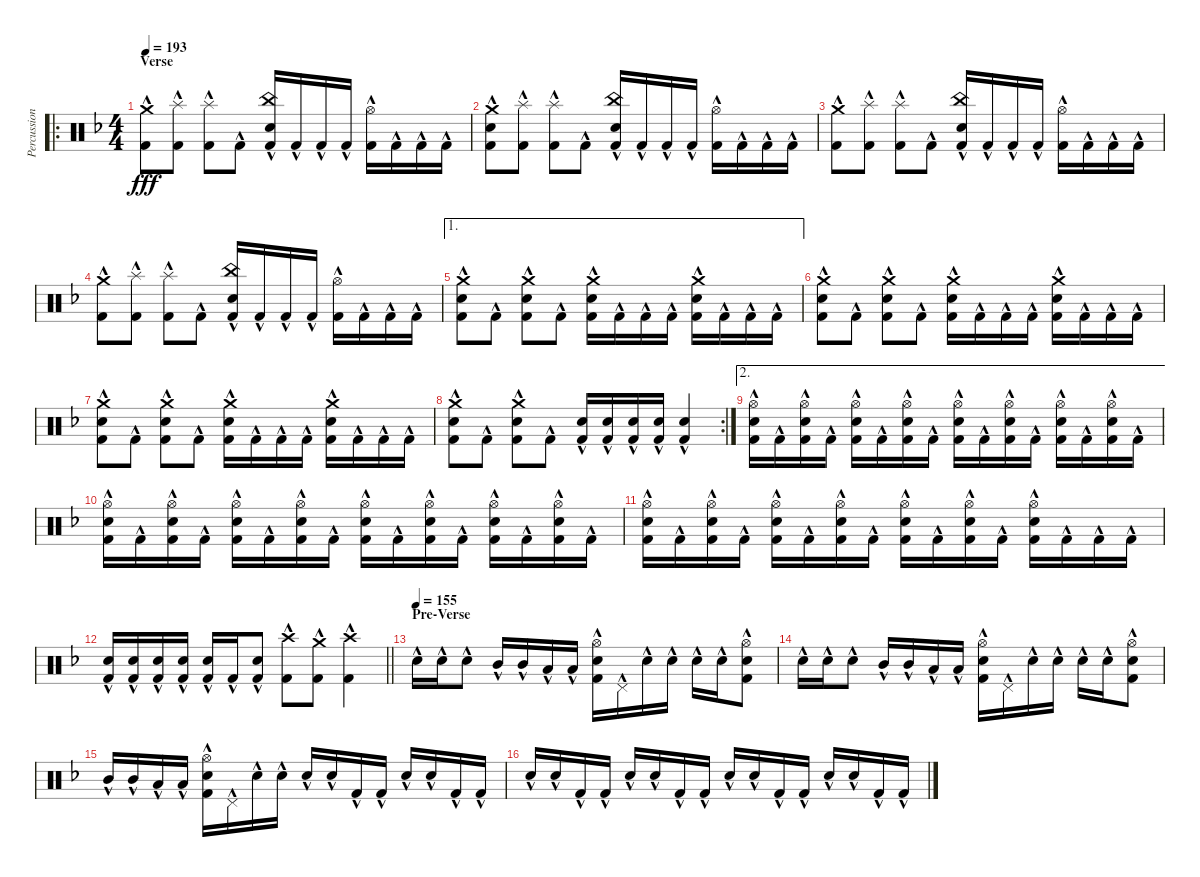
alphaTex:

\track ("Percussion" "Percussion") {instrument percussion}
\staff {score}
\articulation defaults
\ro
\ts (4 4)
\section ("" "Verse")
\tempo 193
\clef neutral
\ks f
("Crash medium (hit)"{hac} "Kick (hit) 2"{hac}).8{dy fff volume 14} ("Splash (hit)"{hac} "Kick (hit) 2"{hac}).8 ("Splash (hit)"{hac} "Kick (hit) 2"{hac}).8 "Kick (hit) 2"{hac}.8 ("China (hit)"{hac} "Electric Snare (hit)"{hac} "Kick (hit) 2"{hac}).16 "Kick (hit) 2"{hac}.16 "Kick (hit) 2"{hac}.16 "Kick (hit) 2"{hac}.16 ("Hi-Hat (open)"{hac} "Kick (hit) 2"{hac}).16 "Kick (hit) 2"{hac}.16 "Kick (hit) 2"{hac}.16 "Kick (hit) 2"{hac}.16 |
("Crash medium (hit)"{hac} "Electric Snare (hit)"{hac} "Kick (hit) 2"{hac}).8{volume 14} ("Splash (hit)"{hac} "Kick (hit) 2"{hac}).8 ("Splash (hit)"{hac} "Kick (hit) 2"{hac}).8 "Kick (hit) 2"{hac}.8 ("China (hit)"{hac} "Electric Snare (hit)"{hac} "Kick (hit) 2"{hac}).16 "Kick (hit) 2"{hac}.16 "Kick (hit) 2"{hac}.16 "Kick (hit) 2"{hac}.16 ("Hi-Hat (open)"{hac} "Kick (hit) 2"{hac}).16 "Kick (hit) 2"{hac}.16 "Kick (hit) 2"{hac}.16 "Kick (hit) 2"{hac}.16 |
("Crash medium (hit)"{hac} "Kick (hit) 2"{hac}).8{volume 14} ("Splash (hit)"{hac} "Kick (hit) 2"{hac}).8 ("Splash (hit)"{hac} "Kick (hit) 2"{hac}).8 "Kick (hit) 2"{hac}.8 ("China (hit)"{hac} "Electric Snare (hit)"{hac} "Kick (hit) 2"{hac}).16 "Kick (hit) 2"{hac}.16 "Kick (hit) 2"{hac}.16 "Kick (hit) 2"{hac}.16 ("Hi-Hat (open)"{hac} "Kick (hit) 2"{hac}).16 "Kick (hit) 2"{hac}.16 "Kick (hit) 2"{hac}.16 "Kick (hit) 2"{hac}.16 |
("Crash medium (hit)"{hac} "Kick (hit) 2"{hac}).8{volume 14} ("Splash (hit)"{hac} "Kick (hit) 2"{hac}).8 ("Splash (hit)"{hac} "Kick (hit) 2"{hac}).8 "Kick (hit) 2"{hac}.8 ("China (hit)"{hac} "Electric Snare (hit)"{hac} "Kick (hit) 2"{hac}).16 "Kick (hit) 2"{hac}.16 "Kick (hit) 2"{hac}.16 "Kick (hit) 2"{hac}.16 ("Hi-Hat (open)"{hac} "Kick (hit) 2"{hac}).16 "Kick (hit) 2"{hac}.16 "Kick (hit) 2"{hac}.16 "Kick (hit) 2"{hac}.16 |
\ae 1
("Crash medium (hit)"{hac} "Electric Snare (hit)"{hac} "Kick (hit) 2"{hac}).8 "Kick (hit) 2"{hac}.8 ("Crash medium (hit)"{hac} "Electric Snare (hit)"{hac} "Kick (hit) 2"{hac}).8 "Kick (hit) 2"{hac}.8 ("Crash medium (hit)"{hac} "Electric Snare (hit)"{hac} "Kick (hit) 2"{hac}).16 "Kick (hit) 2"{hac}.16 "Kick (hit) 2"{hac}.16 "Kick (hit) 2"{hac}.16 ("Crash medium (hit)"{hac} "Electric Snare (hit)"{hac} "Kick (hit) 2"{hac}).16 "Kick (hit) 2"{hac}.16 "Kick (hit) 2"{hac}.16 "Kick (hit) 2"{hac}.16 |
("Crash medium (hit)"{hac} "Electric Snare (hit)"{hac} "Kick (hit) 2"{hac}).8 "Kick (hit) 2"{hac}.8 ("Crash medium (hit)"{hac} "Electric Snare (hit)"{hac} "Kick (hit) 2"{hac}).8 "Kick (hit) 2"{hac}.8 ("Crash medium (hit)"{hac} "Electric Snare (hit)"{hac} "Kick (hit) 2"{hac}).16 "Kick (hit) 2"{hac}.16 "Kick (hit) 2"{hac}.16 "Kick (hit) 2"{hac}.16 ("Crash medium (hit)"{hac} "Electric Snare (hit)"{hac} "Kick (hit) 2"{hac}).16 "Kick (hit) 2"{hac}.16 "Kick (hit) 2"{hac}.16 "Kick (hit) 2"{hac}.16 |
("Crash medium (hit)"{hac} "Electric Snare (hit)"{hac} "Kick (hit) 2"{hac}).8 "Kick (hit) 2"{hac}.8 ("Crash medium (hit)"{hac} "Electric Snare (hit)"{hac} "Kick (hit) 2"{hac}).8 "Kick (hit) 2"{hac}.8 ("Crash medium (hit)"{hac} "Electric Snare (hit)"{hac} "Kick (hit) 2"{hac}).16 "Kick (hit) 2"{hac}.16 "Kick (hit) 2"{hac}.16 "Kick (hit) 2"{hac}.16 ("Crash medium (hit)"{hac} "Electric Snare (hit)"{hac} "Kick (hit) 2"{hac}).16 "Kick (hit) 2"{hac}.16 "Kick (hit) 2"{hac}.16 "Kick (hit) 2"{hac}.16 |
\rc 2
("Crash medium (hit)"{hac} "Electric Snare (hit)"{hac} "Kick (hit) 2"{hac}).8 "Kick (hit) 2"{hac}.8 ("Crash medium (hit)"{hac} "Electric Snare (hit)"{hac} "Kick (hit) 2"{hac}).8 "Kick (hit) 2"{hac}.8 ("Electric Snare (hit)"{hac} "Kick (hit) 2"{hac}).16 ("Electric Snare (hit)"{hac} "Kick (hit) 2"{hac}).16 ("Electric Snare (hit)"{hac} "Kick (hit) 2"{hac}).16 ("Electric Snare (hit)"{hac} "Kick (hit) 2"{hac}).16 ("Electric Snare (hit)"{hac} "Kick (hit) 2"{hac}).4 |
\ae 2
("Hi-Hat (open)"{hac} "Electric Snare (hit)"{hac} "Kick (hit) 2"{hac}).16 "Kick (hit) 2"{hac}.16 ("Hi-Hat (open)"{hac} "Electric Snare (hit)"{hac} "Kick (hit) 2"{hac}).16 "Kick (hit) 2"{hac}.16 ("Hi-Hat (open)"{hac} "Electric Snare (hit)"{hac} "Kick (hit) 2"{hac}).16 "Kick (hit) 2"{hac}.16 ("Hi-Hat (open)"{hac} "Electric Snare (hit)"{hac} "Kick (hit) 2"{hac}).16 "Kick (hit) 2"{hac}.16 ("Hi-Hat (open)"{hac} "Electric Snare (hit)"{hac} "Kick (hit) 2"{hac}).16 "Kick (hit) 2"{hac}.16 ("Hi-Hat (open)"{hac} "Electric Snare (hit)"{hac} "Kick (hit) 2"{hac}).16 "Kick (hit) 2"{hac}.16 ("Hi-Hat (open)"{hac} "Electric Snare (hit)"{hac} "Kick (hit) 2"{hac}).16 "Kick (hit) 2"{hac}.16 ("Hi-Hat (open)"{hac} "Electric Snare (hit)"{hac} "Kick (hit) 2"{hac}).16 "Kick (hit) 2"{hac}.16 |
("Hi-Hat (open)"{hac} "Electric Snare (hit)"{hac} "Kick (hit) 2"{hac}).16 "Kick (hit) 2"{hac}.16 ("Hi-Hat (open)"{hac} "Electric Snare (hit)"{hac} "Kick (hit) 2"{hac}).16 "Kick (hit) 2"{hac}.16 ("Hi-Hat (open)"{hac} "Electric Snare (hit)"{hac} "Kick (hit) 2"{hac}).16 "Kick (hit) 2"{hac}.16 ("Hi-Hat (open)"{hac} "Electric Snare (hit)"{hac} "Kick (hit) 2"{hac}).16 "Kick (hit) 2"{hac}.16 ("Hi-Hat (open)"{hac} "Electric Snare (hit)"{hac} "Kick (hit) 2"{hac}).16 "Kick (hit) 2"{hac}.16 ("Hi-Hat (open)"{hac} "Electric Snare (hit)"{hac} "Kick (hit) 2"{hac}).16 "Kick (hit) 2"{hac}.16 ("Hi-Hat (open)"{hac} "Electric Snare (hit)"{hac} "Kick (hit) 2"{hac}).16 "Kick (hit) 2"{hac}.16 ("Hi-Hat (open)"{hac} "Electric Snare (hit)"{hac} "Kick (hit) 2"{hac}).16 "Kick (hit) 2"{hac}.16 |
("Hi-Hat (open)"{hac} "Electric Snare (hit)"{hac} "Kick (hit) 2"{hac}).16 "Kick (hit) 2"{hac}.16 ("Hi-Hat (open)"{hac} "Electric Snare (hit)"{hac} "Kick (hit) 2"{hac}).16 "Kick (hit) 2"{hac}.16 ("Hi-Hat (open)"{hac} "Electric Snare (hit)"{hac} "Kick (hit) 2"{hac}).16 "Kick (hit) 2"{hac}.16 ("Hi-Hat (open)"{hac} "Electric Snare (hit)"{hac} "Kick (hit) 2"{hac}).16 "Kick (hit) 2"{hac}.16 ("Hi-Hat (open)"{hac} "Electric Snare (hit)"{hac} "Kick (hit) 2"{hac}).16 "Kick (hit) 2"{hac}.16 ("Hi-Hat (open)"{hac} "Electric Snare (hit)"{hac} "Kick (hit) 2"{hac}).16 "Kick (hit) 2"{hac}.16 ("Hi-Hat (open)"{hac} "Electric Snare (hit)"{hac} "Kick (hit) 2"{hac}).16 "Kick (hit) 2"{hac}.16 "Kick (hit) 2"{hac}.16 "Kick (hit) 2"{hac}.16 |
\barLineRight lightlight
("Electric Snare (hit)"{hac} "Kick (hit) 2"{hac}).16 ("Electric Snare (hit)"{hac} "Kick (hit) 2"{hac}).16 ("Electric Snare (hit)"{hac} "Kick (hit) 2"{hac}).16 ("Electric Snare (hit)"{hac} "Kick (hit) 2"{hac}).16 ("Electric Snare (hit)"{hac} "Kick (hit) 2"{hac}).16 "Kick (hit) 2"{hac}.16 ("Electric Snare (hit)"{hac} "Kick (hit) 2"{hac}).8 ("Crash high (hit)"{hac} "Kick (hit) 2"{hac}).8 ("Crash medium (hit)"{hac} "Kick (hit) 2"{hac}).8 ("Crash high (hit)"{hac} "Kick (hit) 2"{hac}).4 |
\section ("" "Pre-Verse")
\tempo (155)
"Electric Snare (hit)"{hac}.16 "Electric Snare (hit)"{hac}.16 "Electric Snare (hit)"{hac}.8 "Mid Tom (hit)"{hac}.16 "Mid Tom (hit)"{hac}.16 "Low Tom (hit)"{hac}.16 "Low Tom (hit)"{hac}.16 ("Hi-Hat (open)"{hac} "Electric Snare (hit)"{hac} "Kick (hit) 2"{hac}).16 "Pedal Hi-Hat (hit)"{hac}.16 "Electric Snare (hit)"{hac}.16 "Electric Snare (hit)"{hac}.16 "Electric Snare (hit)"{hac}.16 "Electric Snare (hit)"{hac}.16 ("Hi-Hat (open)"{hac} "Electric Snare (hit)"{hac} "Kick (hit) 2"{hac}).8 |
"Electric Snare (hit)"{hac}.16 "Electric Snare (hit)"{hac}.16 "Electric Snare (hit)"{hac}.8 "Mid Tom (hit)"{hac}.16 "Mid Tom (hit)"{hac}.16 "Low Tom (hit)"{hac}.16 "Low Tom (hit)"{hac}.16 ("Hi-Hat (open)"{hac} "Electric Snare (hit)"{hac} "Kick (hit) 2"{hac}).16 "Pedal Hi-Hat (hit)"{hac}.16 "Electric Snare (hit)"{hac}.16 "Electric Snare (hit)"{hac}.16 "Electric Snare (hit)"{hac}.16 "Electric Snare (hit)"{hac}.16 ("Hi-Hat (open)"{hac} "Electric Snare (hit)"{hac} "Kick (hit) 2"{hac}).8 |
"Mid Tom (hit)"{hac}.16 "Mid Tom (hit)"{hac}.16 "Low Tom (hit)"{hac}.16 "Low Tom (hit)"{hac}.16 ("Hi-Hat (open)"{hac} "Electric Snare (hit)"{hac} "Kick (hit) 2"{hac}).16 "Pedal Hi-Hat (hit)"{hac}.16 "Electric Snare (hit)"{hac}.16 "Electric Snare (hit)"{hac}.16 "Electric Snare (hit)"{hac}.16 "Electric Snare (hit)"{hac}.16 "Kick (hit) 2"{hac}.16 "Kick (hit) 2"{hac}.16 "Electric Snare (hit)"{hac}.16 "Electric Snare (hit)"{hac}.16 "Kick (hit) 2"{hac}.16 "Kick (hit) 2"{hac}.16 |
"Electric Snare (hit)"{hac}.16 "Electric Snare (hit)"{hac}.16 "Kick (hit) 2"{hac}.16 "Kick (hit) 2"{hac}.16 "Electric Snare (hit)"{hac}.16 "Electric Snare (hit)"{hac}.16 "Kick (hit) 2"{hac}.16 "Kick (hit) 2"{hac}.16 "Electric Snare (hit)"{hac}.16 "Electric Snare (hit)"{hac}.16 "Kick (hit) 2"{hac}.16 "Kick (hit) 2"{hac}.16 "Electric Snare (hit)"{hac}.16 "Electric Snare (hit)"{hac}.16 "Kick (hit) 2"{hac}.16 "Kick (hit) 2"{hac}.16
